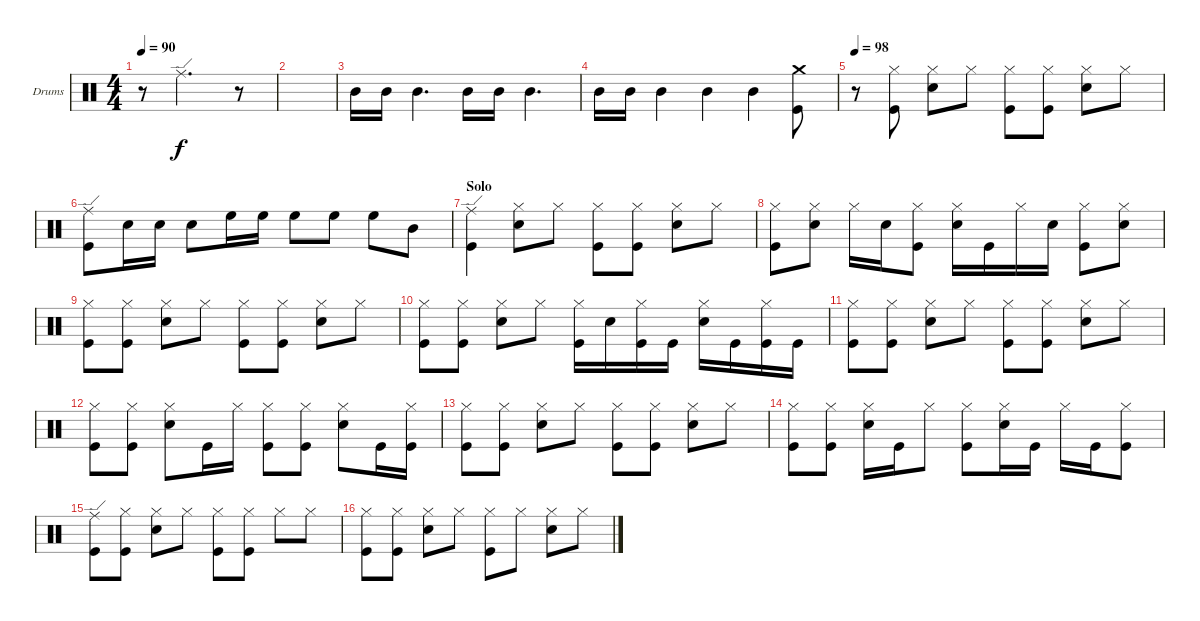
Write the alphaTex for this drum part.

\defaultSystemsLayout 4
\bracketExtendMode groupsimilarinstruments
\firstSystemTrackNameOrientation horizontal
\otherSystemsTrackNameOrientation horizontal
\track ("Drumkit (Bonham)" "Drums") {instrument percussion}
\staff {score}
\articulation defaults
\ts (4 4)
\tempo 90
\clef neutral
\scale
0.333333
\ks c
r.8{dy f} "Ride (edge)".2{d} r.8 |
\scale
0.333333 |
\scale
0.333333 "Mid Tom (hit)".16 "Mid Tom (hit)".16 "Mid Tom (hit)".4{d} "Mid Tom (hit)".16 "Mid Tom (hit)".16 "Mid Tom (hit)".4{d} |
\scale
0.333333 "Mid Tom (hit)".16 "Mid Tom (hit)".16 "Mid Tom (hit)".4 "Mid Tom (hit)".4 "Mid Tom (hit)".4 ("Kick (hit)" "Crash medium (hit)").8 |
\tempo 98
\scale
0.333333 r.8 ("Hi-Hat (closed)" "Kick (hit)").8 ("Hi-Hat (closed)" "Snare (hit) 2").8 "Hi-Hat (closed)".8 ("Hi-Hat (closed)" "Kick (hit)").8 ("Hi-Hat (closed)" "Kick (hit)").8 ("Hi-Hat (closed)" "Snare (hit) 2").8 "Hi-Hat (closed)".8 |
\scale
0.333333 ("Ride (edge)" "Kick (hit)").8 "Snare (hit) 2".16 "Snare (hit) 2".16 "Snare (hit) 2".8 "High Floor Tom (hit)".16 "High Floor Tom (hit)".16 "High Floor Tom (hit)".8 "High Floor Tom (hit)".8 "High Floor Tom (hit)".8 "Mid Tom (hit)".8 |
\section ("" "Solo")
\scale
0.333333 ("Ride (edge)" "Kick (hit)").4 ("Hi-Hat (closed)" "Snare (hit) 2").8 "Hi-Hat (closed)".8 ("Hi-Hat (closed)" "Kick (hit)").8 ("Hi-Hat (closed)" "Kick (hit)").8 ("Hi-Hat (closed)" "Snare (hit) 2").8 "Hi-Hat (closed)".8 |
\scale
0.333333 ("Hi-Hat (closed)" "Kick (hit)").8 ("Hi-Hat (closed)" "Snare (hit) 2").8 "Hi-Hat (closed)".16 "Snare (hit) 2".16 ("Hi-Hat (closed)" "Kick (hit)").8 ("Hi-Hat (closed)" "Snare (hit) 2").16 "Kick (hit)".16 "Hi-Hat (closed)".16 "Snare (hit) 2".16 ("Hi-Hat (closed)" "Kick (hit)").8 ("Hi-Hat (closed)" "Snare (hit) 2").8 |
\scale
0.333333 ("Hi-Hat (closed)" "Kick (hit)").8 ("Hi-Hat (closed)" "Kick (hit)").8 ("Hi-Hat (closed)" "Snare (hit) 2").8 "Hi-Hat (closed)".8 ("Hi-Hat (closed)" "Kick (hit)").8 ("Hi-Hat (closed)" "Kick (hit)").8 ("Hi-Hat (closed)" "Snare (hit) 2").8 "Hi-Hat (closed)".8 |
\scale
0.333333 ("Hi-Hat (closed)" "Kick (hit)").8 ("Hi-Hat (closed)" "Kick (hit)").8 ("Hi-Hat (closed)" "Snare (hit) 2").8 "Hi-Hat (closed)".8 ("Hi-Hat (closed)" "Kick (hit)").16 "Snare (hit) 2".16 ("Hi-Hat (closed)" "Kick (hit)").16 "Kick (hit)".16 ("Hi-Hat (closed)" "Snare (hit) 2").16 "Kick (hit)".16 ("Hi-Hat (closed)" "Kick (hit)").16 "Kick (hit)".16 |
\scale
0.333333 ("Hi-Hat (closed)" "Kick (hit)").8 ("Hi-Hat (closed)" "Kick (hit)").8 ("Hi-Hat (closed)" "Snare (hit) 2").8 "Hi-Hat (closed)".8 ("Hi-Hat (closed)" "Kick (hit)").8 ("Hi-Hat (closed)" "Kick (hit)").8 ("Hi-Hat (closed)" "Snare (hit) 2").8 "Hi-Hat (closed)".8 |
\scale
0.333333 ("Hi-Hat (closed)" "Kick (hit)").8 ("Hi-Hat (closed)" "Kick (hit)").8 ("Hi-Hat (closed)" "Snare (hit) 2").8 "Kick (hit)".16 "Hi-Hat (closed)".16 ("Hi-Hat (closed)" "Kick (hit)").8 ("Hi-Hat (closed)" "Kick (hit)").8 ("Hi-Hat (closed)" "Snare (hit) 2").8 "Kick (hit)".16 ("Hi-Hat (closed)" "Kick (hit)").16 |
\scale
0.333333 ("Hi-Hat (closed)" "Kick (hit)").8 ("Hi-Hat (closed)" "Kick (hit)").8 ("Hi-Hat (closed)" "Snare (hit) 2").8 "Hi-Hat (closed)".8 ("Hi-Hat (closed)" "Kick (hit)").8 ("Hi-Hat (closed)" "Kick (hit)").8 ("Hi-Hat (closed)" "Snare (hit) 2").8 "Hi-Hat (closed)".8 |
\scale
0.333333 ("Hi-Hat (closed)" "Kick (hit)").8 ("Hi-Hat (closed)" "Kick (hit)").8 ("Hi-Hat (closed)" "Snare (hit) 2").16 "Kick (hit)".16 "Hi-Hat (closed)".8 ("Hi-Hat (closed)" "Kick (hit)").8 ("Hi-Hat (closed)" "Snare (hit) 2").16 "Kick (hit)".16 "Hi-Hat (closed)".16 "Kick (hit)".16 ("Hi-Hat (closed)" "Kick (hit)").8 |
\scale
0.333333 ("Ride (edge)" "Kick (hit)").8 ("Hi-Hat (closed)" "Kick (hit)").8 ("Hi-Hat (closed)" "Snare (hit) 2").8 "Hi-Hat (closed)".8 ("Hi-Hat (closed)" "Kick (hit)").8 ("Hi-Hat (closed)" "Kick (hit)").8 "Hi-Hat (closed)".8 "Hi-Hat (closed)".8 |
\scale
0.333333 ("Hi-Hat (closed)" "Kick (hit)").8 ("Hi-Hat (closed)" "Kick (hit)").8 ("Hi-Hat (closed)" "Snare (hit) 2").8 "Hi-Hat (closed)".8 ("Hi-Hat (closed)" "Kick (hit)").8 "Hi-Hat (closed)".8 ("Hi-Hat (closed)" "Snare (hit) 2").8 "Hi-Hat (closed)".8
